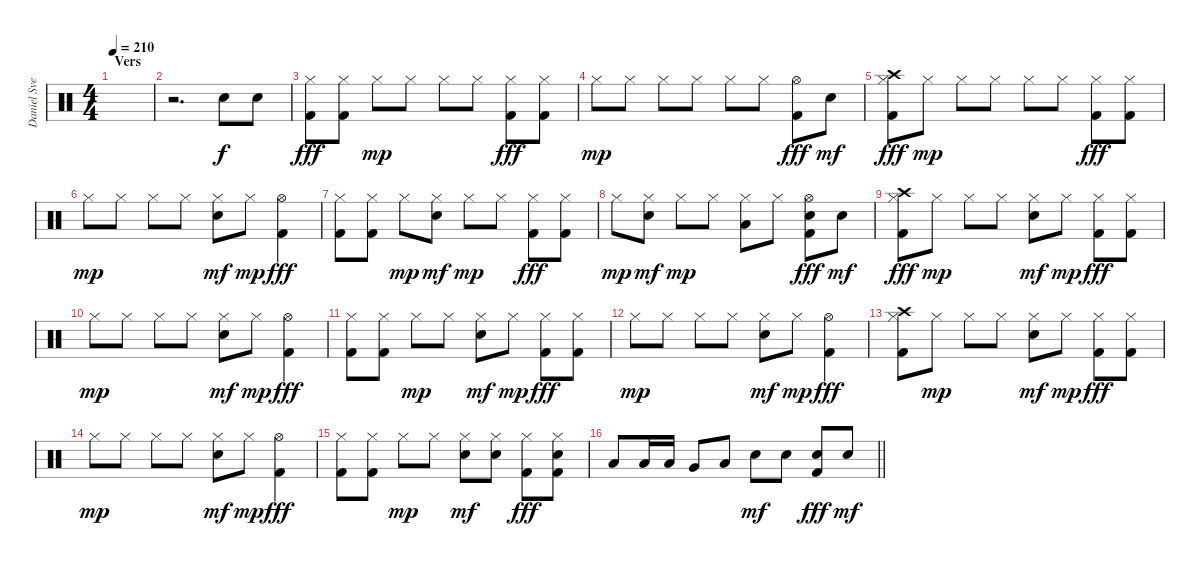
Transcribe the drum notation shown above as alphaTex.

\track ("Daniel Svensson" "Daniel Sve") {instrument percussion}
\staff {score}
\articulation defaults
\ts (4 4)
\section ("" "Vers")
\tempo 210
\clef neutral
\ks c
|
r.2{d} "Electric Snare (hit)".8 "Electric Snare (hit)".8 |
("Hi-Hat (closed)" "Kick (hit) 2").8{dy fff} ("Hi-Hat (closed)" "Kick (hit) 2").8 "Hi-Hat (closed)".8{dy mp} "Hi-Hat (closed)".8 "Hi-Hat (closed)".8 "Hi-Hat (closed)".8 ("Hi-Hat (closed)" "Kick (hit) 2").8{dy fff} ("Hi-Hat (closed)" "Kick (hit) 2").8 |
"Hi-Hat (closed)".8{dy mp} "Hi-Hat (closed)".8 "Hi-Hat (closed)".8 "Hi-Hat (closed)".8 "Hi-Hat (closed)".8 "Hi-Hat (closed)".8 ("Hi-Hat (open)" "Kick (hit) 2").8{dy fff} "Electric Snare (hit)".8{dy mf} |
("Crash high (hit)" "Hi-Hat (closed)" "Kick (hit) 2").8{dy fff} "Hi-Hat (closed)".8{dy mp} "Hi-Hat (closed)".8 "Hi-Hat (closed)".8 "Hi-Hat (closed)".8 "Hi-Hat (closed)".8 ("Hi-Hat (closed)" "Kick (hit) 2").8{dy fff} ("Hi-Hat (closed)" "Kick (hit) 2").8 |
"Hi-Hat (closed)".8{dy mp} "Hi-Hat (closed)".8 "Hi-Hat (closed)".8 "Hi-Hat (closed)".8 ("Hi-Hat (closed)" "Electric Snare (hit)").8{dy mf} "Hi-Hat (closed)".8{dy mp} ("Hi-Hat (open)" "Kick (hit) 2").4{dy fff} |
("Hi-Hat (closed)" "Kick (hit) 2").8 ("Hi-Hat (closed)" "Kick (hit) 2").8 "Hi-Hat (closed)".8{dy mp} ("Hi-Hat (closed)" "Electric Snare (hit)").8{dy mf} "Hi-Hat (closed)".8{dy mp} "Hi-Hat (closed)".8 ("Hi-Hat (closed)" "Kick (hit) 2").8{dy fff} ("Hi-Hat (closed)" "Kick (hit) 2").8 |
"Hi-Hat (closed)".8{dy mp} ("Hi-Hat (closed)" "Electric Snare (hit)").8{dy mf} "Hi-Hat (closed)".8{dy mp} "Hi-Hat (closed)".8 ("Low Tom (hit)" "Hi-Hat (closed)").8 "Hi-Hat (closed)".8 ("Hi-Hat (open)" "Electric Snare (hit)" "Kick (hit) 2").8{dy fff} "Electric Snare (hit)".8{dy mf} |
("Crash high (hit)" "Hi-Hat (closed)" "Kick (hit) 2").8{dy fff} "Hi-Hat (closed)".8{dy mp} "Hi-Hat (closed)".8 "Hi-Hat (closed)".8 ("Hi-Hat (closed)" "Electric Snare (hit)").8{dy mf} "Hi-Hat (closed)".8{dy mp} ("Hi-Hat (closed)" "Kick (hit) 2").8{dy fff} ("Hi-Hat (closed)" "Kick (hit) 2").8 |
"Hi-Hat (closed)".8{dy mp} "Hi-Hat (closed)".8 "Hi-Hat (closed)".8 "Hi-Hat (closed)".8 ("Hi-Hat (closed)" "Electric Snare (hit)").8{dy mf} "Hi-Hat (closed)".8{dy mp} ("Hi-Hat (open)" "Kick (hit) 2").4{dy fff} |
("Hi-Hat (closed)" "Kick (hit) 2").8 ("Hi-Hat (closed)" "Kick (hit) 2").8 "Hi-Hat (closed)".8{dy mp} "Hi-Hat (closed)".8 ("Hi-Hat (closed)" "Electric Snare (hit)").8{dy mf} "Hi-Hat (closed)".8{dy mp} ("Hi-Hat (closed)" "Kick (hit) 2").8{dy fff} ("Hi-Hat (closed)" "Kick (hit) 2").8 |
"Hi-Hat (closed)".8{dy mp} "Hi-Hat (closed)".8 "Hi-Hat (closed)".8 "Hi-Hat (closed)".8 ("Hi-Hat (closed)" "Electric Snare (hit)").8{dy mf} "Hi-Hat (closed)".8{dy mp} ("Hi-Hat (open)" "Kick (hit) 2").4{dy fff} |
("Crash high (hit)" "Hi-Hat (closed)" "Kick (hit) 2").8 "Hi-Hat (closed)".8{dy mp} "Hi-Hat (closed)".8 "Hi-Hat (closed)".8 ("Hi-Hat (closed)" "Electric Snare (hit)").8{dy mf} "Hi-Hat (closed)".8{dy mp} ("Hi-Hat (closed)" "Kick (hit) 2").8{dy fff} ("Hi-Hat (closed)" "Kick (hit) 2").8 |
"Hi-Hat (closed)".8{dy mp} "Hi-Hat (closed)".8 "Hi-Hat (closed)".8 "Hi-Hat (closed)".8 ("Hi-Hat (closed)" "Electric Snare (hit)").8{dy mf} "Hi-Hat (closed)".8{dy mp} ("Hi-Hat (open)" "Kick (hit) 2").4{dy fff} |
("Hi-Hat (closed)" "Kick (hit) 2").8 ("Hi-Hat (closed)" "Kick (hit) 2").8 "Hi-Hat (closed)".8{dy mp} "Hi-Hat (closed)".8 ("Hi-Hat (closed)" "Electric Snare (hit)").8{dy mf} ("Hi-Hat (closed)" "Electric Snare (hit)").8 ("Hi-Hat (closed)" "Kick (hit) 2").8{dy fff} ("Hi-Hat (closed)" "Electric Snare (hit)" "Kick (hit) 2").8 |
\barLineRight lightlight "Low Tom (hit)".8 "Low Tom (hit)".16 "Low Tom (hit)".16 "Very Low Tom (hit)".8 "Low Floor Tom (hit)".8 "Electric Snare (hit)".8{dy mf} "Electric Snare (hit)".8
("Electric Snare (hit)" "Kick (hit) 2").8{dy fff} "Electric Snare (hit)".8{dy mf}
